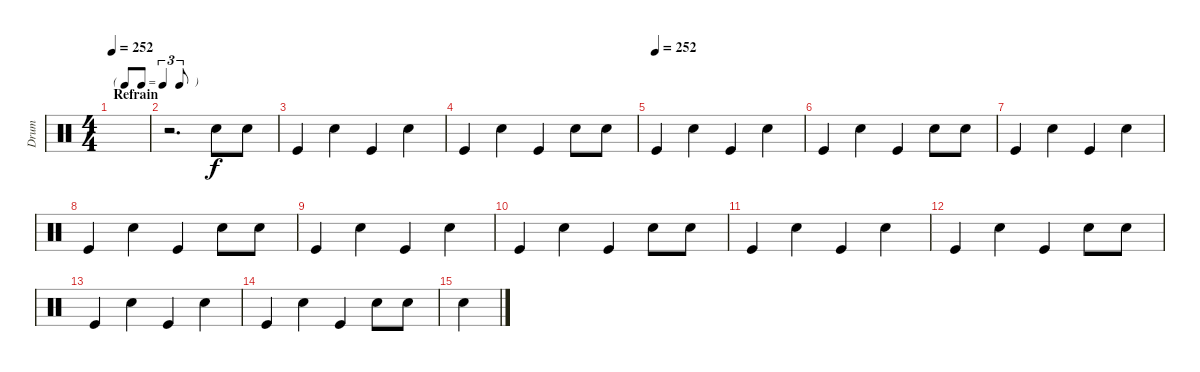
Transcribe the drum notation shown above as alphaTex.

\track ("Drum" "Drum") {instrument percussion}
\staff {score}
\articulation defaults
\ts (4 4)
\tf triplet8th
\section ("" "Refrain")
\tempo 252
\clef neutral
\ks c
|
r.2{d} "Snare (hit) 2".8 "Snare (hit) 2".8 |
"Kick (hit)".4 "Snare (hit) 2".4 "Kick (hit)".4 "Snare (hit) 2".4 |
"Kick (hit)".4 "Snare (hit) 2".4 "Kick (hit)".4 "Snare (hit) 2".8 "Snare (hit) 2".8 |
\tempo (252)
"Kick (hit)".4 "Snare (hit) 2".4 "Kick (hit)".4 "Snare (hit) 2".4 |
"Kick (hit)".4 "Snare (hit) 2".4 "Kick (hit)".4 "Snare (hit) 2".8 "Snare (hit) 2".8 |
"Kick (hit)".4 "Snare (hit) 2".4 "Kick (hit)".4 "Snare (hit) 2".4 |
"Kick (hit)".4 "Snare (hit) 2".4 "Kick (hit)".4 "Snare (hit) 2".8 "Snare (hit) 2".8 |
"Kick (hit)".4 "Snare (hit) 2".4 "Kick (hit)".4 "Snare (hit) 2".4 |
"Kick (hit)".4 "Snare (hit) 2".4 "Kick (hit)".4 "Snare (hit) 2".8 "Snare (hit) 2".8 |
"Kick (hit)".4 "Snare (hit) 2".4 "Kick (hit)".4 "Snare (hit) 2".4 |
"Kick (hit)".4 "Snare (hit) 2".4 "Kick (hit)".4 "Snare (hit) 2".8 "Snare (hit) 2".8 |
"Kick (hit)".4 "Snare (hit) 2".4 "Kick (hit)".4 "Snare (hit) 2".4 |
"Kick (hit)".4 "Snare (hit) 2".4 "Kick (hit)".4 "Snare (hit) 2".8 "Snare (hit) 2".8 |
"Snare (hit) 2".4
